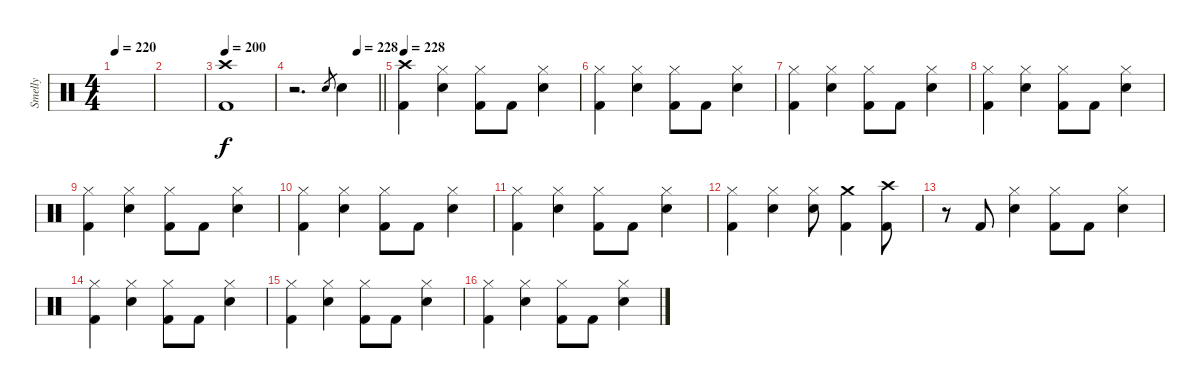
\track ("Smelly" "Smelly") {instrument percussion}
\staff {score}
\articulation defaults
\ts (4 4)
\tempo 220
\clef neutral
\ks c
|
|
\tempo 200
("Crash high (hit)" "Kick (hit) 2").1 |
\tempo (228 0.75)
\barLineRight lightlight
r.2{d} "Electric Snare (hit)".8{gr} "Electric Snare (hit)".4 |
\section ("" "")
\tempo 228
("Crash high (hit)" "Kick (hit) 2").4 ("Hi-Hat (closed)" "Electric Snare (hit)").4 ("Hi-Hat (closed)" "Kick (hit) 2").8 "Kick (hit) 2".8 ("Hi-Hat (closed)" "Electric Snare (hit)").4 |
("Hi-Hat (closed)" "Kick (hit) 2").4 ("Hi-Hat (closed)" "Electric Snare (hit)").4 ("Hi-Hat (closed)" "Kick (hit) 2").8 "Kick (hit) 2".8 ("Hi-Hat (closed)" "Electric Snare (hit)").4 |
("Hi-Hat (closed)" "Kick (hit) 2").4 ("Hi-Hat (closed)" "Electric Snare (hit)").4 ("Hi-Hat (closed)" "Kick (hit) 2").8 "Kick (hit) 2".8 ("Hi-Hat (closed)" "Electric Snare (hit)").4 |
("Hi-Hat (closed)" "Kick (hit) 2").4 ("Hi-Hat (closed)" "Electric Snare (hit)").4 ("Hi-Hat (closed)" "Kick (hit) 2").8 "Kick (hit) 2".8 ("Hi-Hat (closed)" "Electric Snare (hit)").4 |
("Hi-Hat (closed)" "Kick (hit) 2").4 ("Hi-Hat (closed)" "Electric Snare (hit)").4 ("Hi-Hat (closed)" "Kick (hit) 2").8 "Kick (hit) 2".8 ("Hi-Hat (closed)" "Electric Snare (hit)").4 |
("Hi-Hat (closed)" "Kick (hit) 2").4 ("Hi-Hat (closed)" "Electric Snare (hit)").4 ("Hi-Hat (closed)" "Kick (hit) 2").8 "Kick (hit) 2".8 ("Hi-Hat (closed)" "Electric Snare (hit)").4 |
("Hi-Hat (closed)" "Kick (hit) 2").4 ("Hi-Hat (closed)" "Electric Snare (hit)").4 ("Hi-Hat (closed)" "Kick (hit) 2").8 "Kick (hit) 2".8 ("Hi-Hat (closed)" "Electric Snare (hit)").4 |
("Hi-Hat (closed)" "Kick (hit) 2").4 ("Hi-Hat (closed)" "Electric Snare (hit)").4 ("Hi-Hat (closed)" "Electric Snare (hit)").8 ("Crash medium (hit)" "Kick (hit) 2").4 ("Crash high (hit)" "Kick (hit) 2").8 |
r.8 "Kick (hit) 2".8 ("Hi-Hat (closed)" "Electric Snare (hit)").4 ("Hi-Hat (closed)" "Kick (hit) 2").8 "Kick (hit) 2".8 ("Hi-Hat (closed)" "Electric Snare (hit)").4 |
("Hi-Hat (closed)" "Kick (hit) 2").4 ("Hi-Hat (closed)" "Electric Snare (hit)").4 ("Hi-Hat (closed)" "Kick (hit) 2").8 "Kick (hit) 2".8 ("Hi-Hat (closed)" "Electric Snare (hit)").4 |
("Hi-Hat (closed)" "Kick (hit) 2").4 ("Hi-Hat (closed)" "Electric Snare (hit)").4 ("Hi-Hat (closed)" "Kick (hit) 2").8 "Kick (hit) 2".8 ("Hi-Hat (closed)" "Electric Snare (hit)").4 |
("Hi-Hat (closed)" "Kick (hit) 2").4 ("Hi-Hat (closed)" "Electric Snare (hit)").4 ("Hi-Hat (closed)" "Kick (hit) 2").8 "Kick (hit) 2".8 ("Hi-Hat (closed)" "Electric Snare (hit)").4
